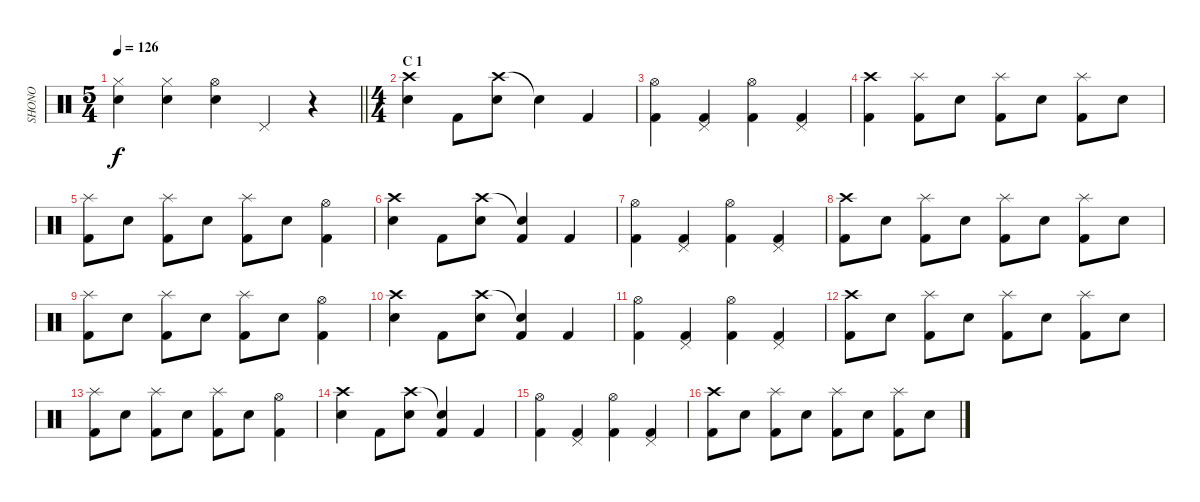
\track ("SHONO" "SHONO") {instrument percussion}
\staff {score}
\articulation defaults
\ts (5 4)
\tempo 126
\clef neutral
\barLineRight lightlight
\ks c
("Hi-Hat (closed)" "Snare (hit) 2").4{dy f} ("Hi-Hat (closed)" "Snare (hit) 2").4 ("Hi-Hat (open)" "Snare (hit) 2").4 "Pedal Hi-Hat (hit)".4 r.4 |
\ts (4 4)
\section ("" "C 1")
("Crash high (hit)" "Snare (hit) 2").4 "Kick (hit) 2".8 ("Crash high (hit)" "Snare (hit) 2").8 "Snare (hit)"{t}.4 "Kick (hit) 2".4 |
("Hi-Hat (open)" "Kick (hit) 2").4 ("Pedal Hi-Hat (hit)" "Kick (hit) 2").4 ("Hi-Hat (open)" "Kick (hit) 2").4 ("Pedal Hi-Hat (hit)" "Kick (hit) 2").4 |
("Crash high (hit)" "Kick (hit) 2").4 ("Splash (hit)" "Kick (hit) 2").8 "Snare (hit) 2".8 ("Splash (hit)" "Kick (hit) 2").8 "Snare (hit) 2".8 ("Splash (hit)" "Kick (hit) 2").8 "Snare (hit) 2".8 |
("Splash (hit)" "Kick (hit) 2").8 "Snare (hit) 2".8 ("Splash (hit)" "Kick (hit) 2").8 "Snare (hit) 2".8 ("Splash (hit)" "Kick (hit) 2").8 "Snare (hit) 2".8 ("Hi-Hat (open)" "Kick (hit) 2").4 |
("Crash high (hit)" "Snare (hit) 2").4 "Kick (hit) 2".8 ("Crash high (hit)" "Snare (hit) 2").8 ("Snare (hit)"{t} "Kick (hit) 2").4 "Kick (hit) 2".4 |
("Hi-Hat (open)" "Kick (hit) 2").4 ("Pedal Hi-Hat (hit)" "Kick (hit) 2").4 ("Hi-Hat (open)" "Kick (hit) 2").4 ("Pedal Hi-Hat (hit)" "Kick (hit) 2").4 |
("Crash high (hit)" "Kick (hit) 2").8 "Snare (hit) 2".8 ("Splash (hit)" "Kick (hit) 2").8 "Snare (hit) 2".8 ("Splash (hit)" "Kick (hit) 2").8 "Snare (hit) 2".8 ("Splash (hit)" "Kick (hit) 2").8 "Snare (hit) 2".8 |
("Splash (hit)" "Kick (hit) 2").8 "Snare (hit) 2".8 ("Splash (hit)" "Kick (hit) 2").8 "Snare (hit) 2".8 ("Splash (hit)" "Kick (hit) 2").8 "Snare (hit) 2".8 ("Hi-Hat (open)" "Kick (hit) 2").4 |
("Crash high (hit)" "Snare (hit) 2").4 "Kick (hit) 2".8 ("Crash high (hit)" "Snare (hit) 2").8 ("Snare (hit)"{t} "Kick (hit) 2").4 "Kick (hit) 2".4 |
("Hi-Hat (open)" "Kick (hit) 2").4 ("Pedal Hi-Hat (hit)" "Kick (hit) 2").4 ("Hi-Hat (open)" "Kick (hit) 2").4 ("Pedal Hi-Hat (hit)" "Kick (hit) 2").4 |
("Crash high (hit)" "Kick (hit) 2").8 "Snare (hit) 2".8 ("Splash (hit)" "Kick (hit) 2").8 "Snare (hit) 2".8 ("Splash (hit)" "Kick (hit) 2").8 "Snare (hit) 2".8 ("Splash (hit)" "Kick (hit) 2").8 "Snare (hit) 2".8 |
("Splash (hit)" "Kick (hit) 2").8 "Snare (hit) 2".8 ("Splash (hit)" "Kick (hit) 2").8 "Snare (hit) 2".8 ("Splash (hit)" "Kick (hit) 2").8 "Snare (hit) 2".8 ("Hi-Hat (open)" "Kick (hit) 2").4 |
("Crash high (hit)" "Snare (hit) 2").4 "Kick (hit) 2".8 ("Crash high (hit)" "Snare (hit) 2").8 ("Snare (hit)"{t} "Kick (hit) 2").4 "Kick (hit) 2".4 |
("Hi-Hat (open)" "Kick (hit) 2").4 ("Pedal Hi-Hat (hit)" "Kick (hit) 2").4 ("Hi-Hat (open)" "Kick (hit) 2").4 ("Pedal Hi-Hat (hit)" "Kick (hit) 2").4 |
("Crash high (hit)" "Kick (hit) 2").8 "Snare (hit) 2".8 ("Splash (hit)" "Kick (hit) 2").8 "Snare (hit) 2".8 ("Splash (hit)" "Kick (hit) 2").8 "Snare (hit) 2".8 ("Splash (hit)" "Kick (hit) 2").8 "Snare (hit) 2".8
